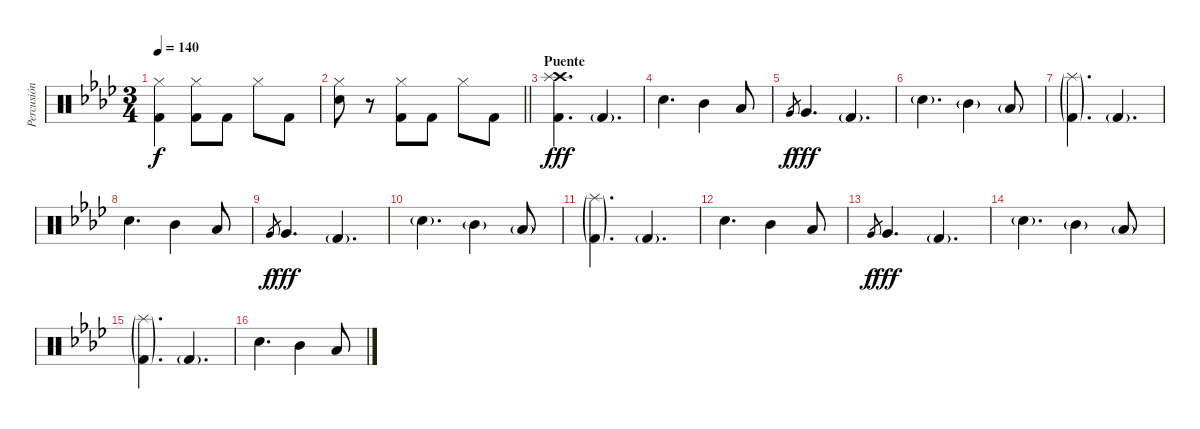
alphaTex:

\track ("Percusión" "Percusión") {instrument percussion}
\staff {score}
\articulation defaults
\ts (3 4)
\tempo 140
\clef neutral
\ks fminor
("Hi-Hat (closed)" "Kick (hit) 2").4{dy f} ("Hi-Hat (closed)" "Kick (hit) 2").8 "Kick (hit) 2".8 "Hi-Hat (closed)".8 "Kick (hit) 2".8 |
\barLineRight lightlight
("Hi-Hat (closed)" "Snare (hit) 2").8 r.8 ("Hi-Hat (closed)" "Kick (hit) 2").8 "Kick (hit) 2".8 "Hi-Hat (closed)".8 "Kick (hit) 2".8 |
\section ("" "Puente")
("Crash high (hit)" "Splash (hit)" "Kick (hit) 2").4{d dy fff} "Kick (hit) 2"{g}.4{d} |
"Electric Snare (hit)".4{d} "Mid Tom (hit)".4 "Low Tom (hit)".8 |
"Very Low Tom (hit)".8{gr dy f} "Very Low Tom (hit)".4{d dy fff} "Kick (hit) 2"{g}.4{d} |
"Electric Snare (hit)"{g}.4{d} "Mid Tom (hit)"{g}.4 "Low Tom (hit)"{g}.8 |
("Splash (hit)"{g} "Kick (hit) 2"{g}).4{d} "Kick (hit) 2"{g}.4{d} |
"Electric Snare (hit)".4{d} "Mid Tom (hit)".4 "Low Tom (hit)".8 |
"Very Low Tom (hit)".8{gr dy f} "Very Low Tom (hit)".4{d dy fff} "Kick (hit) 2"{g}.4{d} |
"Electric Snare (hit)"{g}.4{d} "Mid Tom (hit)"{g}.4 "Low Tom (hit)"{g}.8 |
("Splash (hit)"{g} "Kick (hit) 2"{g}).4{d} "Kick (hit) 2"{g}.4{d} |
"Electric Snare (hit)".4{d} "Mid Tom (hit)".4 "Low Tom (hit)".8 |
"Very Low Tom (hit)".8{gr dy f} "Very Low Tom (hit)".4{d dy fff} "Kick (hit) 2"{g}.4{d} |
"Electric Snare (hit)"{g}.4{d} "Mid Tom (hit)"{g}.4 "Low Tom (hit)"{g}.8 |
("Splash (hit)"{g} "Kick (hit) 2"{g}).4{d} "Kick (hit) 2"{g}.4{d} |
"Electric Snare (hit)".4{d} "Mid Tom (hit)".4 "Low Tom (hit)".8
